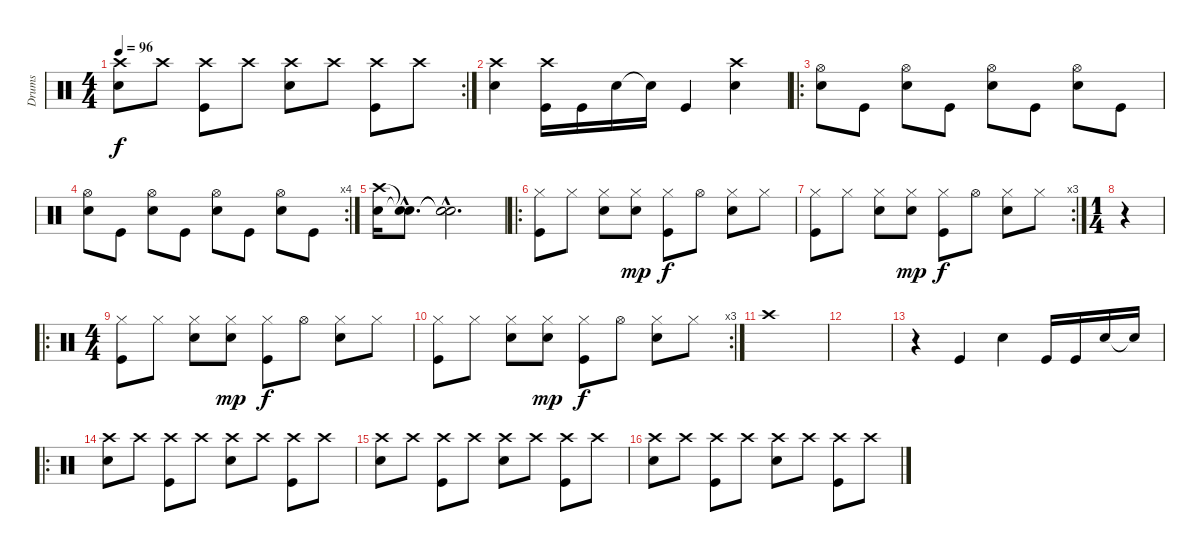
\track ("Drums" "Drums") {instrument percussion}
\staff {score}
\articulation defaults
\rc 2
\ts (4 4)
\tempo 96
\clef neutral
\ks c
("Crash high (hit)" "Electric Snare (hit)").8{dy f} "Crash high (hit)".8 ("Crash high (hit)" "Kick (hit)").8 "Crash high (hit)".8 ("Crash high (hit)" "Electric Snare (hit)").8 "Crash high (hit)".8 ("Crash high (hit)" "Kick (hit)").8 "Crash high (hit)".8 |
("Crash high (hit)" "Electric Snare (hit)").4 ("Crash high (hit)" "Kick (hit)").16 "Kick (hit)".16 "Electric Snare (hit)".16 "Snare (hit)"{t}.16 "Kick (hit)".4 ("Crash high (hit)" "Electric Snare (hit)").4 |
\ro
("Hi-Hat (open)" "Electric Snare (hit)").8 "Kick (hit)".8 ("Hi-Hat (open)" "Electric Snare (hit)").8 "Kick (hit)".8 ("Hi-Hat (open)" "Electric Snare (hit)").8 "Kick (hit)".8 ("Hi-Hat (open)" "Electric Snare (hit)").8 "Kick (hit)".8 |
\rc 4
("Hi-Hat (open)" "Electric Snare (hit)").8 "Kick (hit)".8 ("Hi-Hat (open)" "Electric Snare (hit)").8 "Kick (hit)".8 ("Hi-Hat (open)" "Electric Snare (hit)").8 "Kick (hit)".8 ("Hi-Hat (open)" "Electric Snare (hit)").8 "Kick (hit)".8 |
("Crash high (hit)" "Electric Snare (hit)").16 ("Snare (hit)"{hac t} "Snare (hit)"{hac t}).8{d} ("Snare (hit)"{hac t} "Snare (hit)"{hac t}).2{d} |
\ro
("Hi-Hat (closed)" "Kick (hit)").8 "Hi-Hat (closed)".8 ("Hi-Hat (closed)" "Electric Snare (hit)").8 ("Hi-Hat (closed)" "Electric Snare (hit)").8{dy mp} ("Hi-Hat (closed)" "Kick (hit)").8{dy f} "Hi-Hat (open)".8 ("Hi-Hat (closed)" "Electric Snare (hit)").8 "Hi-Hat (closed)".8 |
\rc 3
("Hi-Hat (closed)" "Kick (hit)").8 "Hi-Hat (closed)".8 ("Hi-Hat (closed)" "Electric Snare (hit)").8 ("Hi-Hat (closed)" "Electric Snare (hit)").8{dy mp} ("Hi-Hat (closed)" "Kick (hit)").8{dy f} "Hi-Hat (open)".8 ("Hi-Hat (closed)" "Electric Snare (hit)").8 "Hi-Hat (closed)".8 |
\ts (1 4)
r.4 |
\ro
\ts (4 4)
("Hi-Hat (closed)" "Kick (hit)").8 "Hi-Hat (closed)".8 ("Hi-Hat (closed)" "Electric Snare (hit)").8 ("Hi-Hat (closed)" "Electric Snare (hit)").8{dy mp} ("Hi-Hat (closed)" "Kick (hit)").8{dy f} "Hi-Hat (open)".8 ("Hi-Hat (closed)" "Electric Snare (hit)").8 "Hi-Hat (closed)".8 |
\rc 3
("Hi-Hat (closed)" "Kick (hit)").8 "Hi-Hat (closed)".8 ("Hi-Hat (closed)" "Electric Snare (hit)").8 ("Hi-Hat (closed)" "Electric Snare (hit)").8{dy mp} ("Hi-Hat (closed)" "Kick (hit)").8{dy f} "Hi-Hat (open)".8 ("Hi-Hat (closed)" "Electric Snare (hit)").8 "Hi-Hat (closed)".8 |
"Crash high (hit)".1 |
|
r.4 "Kick (hit)".4 "Electric Snare (hit)".4 "Kick (hit)".16 "Kick (hit)".16 "Electric Snare (hit)".16 "Snare (hit)"{t}.16 |
\ro
("Crash high (hit)" "Electric Snare (hit)").8 "Crash high (hit)".8 ("Crash high (hit)" "Kick (hit)").8 "Crash high (hit)".8 ("Crash high (hit)" "Electric Snare (hit)").8 "Crash high (hit)".8 ("Crash high (hit)" "Kick (hit)").8 "Crash high (hit)".8 |
("Crash high (hit)" "Electric Snare (hit)").8 "Crash high (hit)".8 ("Crash high (hit)" "Kick (hit)").8 "Crash high (hit)".8 ("Crash high (hit)" "Electric Snare (hit)").8 "Crash high (hit)".8 ("Crash high (hit)" "Kick (hit)").8 "Crash high (hit)".8 |
("Crash high (hit)" "Electric Snare (hit)").8 "Crash high (hit)".8 ("Crash high (hit)" "Kick (hit)").8 "Crash high (hit)".8 ("Crash high (hit)" "Electric Snare (hit)").8 "Crash high (hit)".8 ("Crash high (hit)" "Kick (hit)").8 "Crash high (hit)".8
